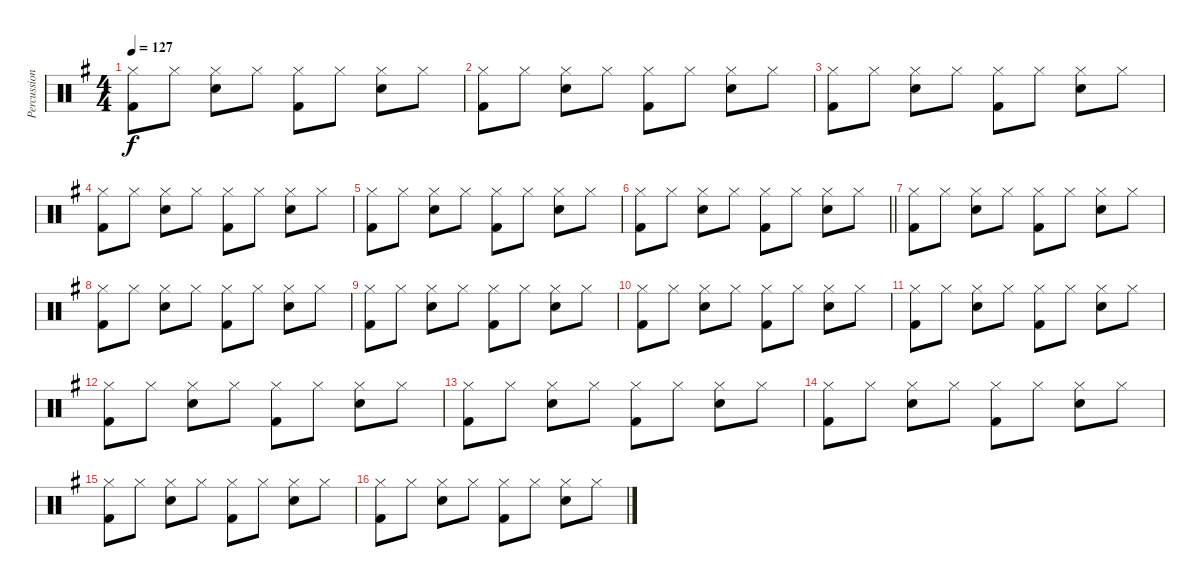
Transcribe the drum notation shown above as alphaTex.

\track ("Percussion" "Percussion") {instrument percussion}
\staff {score}
\articulation defaults
\ts (4 4)
\tempo 127
\clef neutral
\ks g
("Hi-Hat (closed)" "Kick (hit) 2").8{dy f} "Hi-Hat (closed)".8 ("Hi-Hat (closed)" "Snare (hit) 2").8 "Hi-Hat (closed)".8 ("Hi-Hat (closed)" "Kick (hit) 2").8 "Hi-Hat (closed)".8 ("Hi-Hat (closed)" "Snare (hit) 2").8 "Hi-Hat (closed)".8 |
("Hi-Hat (closed)" "Kick (hit) 2").8 "Hi-Hat (closed)".8 ("Hi-Hat (closed)" "Snare (hit) 2").8 "Hi-Hat (closed)".8 ("Hi-Hat (closed)" "Kick (hit) 2").8 "Hi-Hat (closed)".8 ("Hi-Hat (closed)" "Snare (hit) 2").8 "Hi-Hat (closed)".8 |
("Hi-Hat (closed)" "Kick (hit) 2").8 "Hi-Hat (closed)".8 ("Hi-Hat (closed)" "Snare (hit) 2").8 "Hi-Hat (closed)".8 ("Hi-Hat (closed)" "Kick (hit) 2").8 "Hi-Hat (closed)".8 ("Hi-Hat (closed)" "Snare (hit) 2").8 "Hi-Hat (closed)".8 |
("Hi-Hat (closed)" "Kick (hit) 2").8 "Hi-Hat (closed)".8 ("Hi-Hat (closed)" "Snare (hit) 2").8 "Hi-Hat (closed)".8 ("Hi-Hat (closed)" "Kick (hit) 2").8 "Hi-Hat (closed)".8 ("Hi-Hat (closed)" "Snare (hit) 2").8 "Hi-Hat (closed)".8 |
("Hi-Hat (closed)" "Kick (hit) 2").8 "Hi-Hat (closed)".8 ("Hi-Hat (closed)" "Snare (hit) 2").8 "Hi-Hat (closed)".8 ("Hi-Hat (closed)" "Kick (hit) 2").8 "Hi-Hat (closed)".8 ("Hi-Hat (closed)" "Snare (hit) 2").8 "Hi-Hat (closed)".8 |
\barLineRight lightlight
("Hi-Hat (closed)" "Kick (hit) 2").8 "Hi-Hat (closed)".8 ("Hi-Hat (closed)" "Snare (hit) 2").8 "Hi-Hat (closed)".8 ("Hi-Hat (closed)" "Kick (hit) 2").8 "Hi-Hat (closed)".8 ("Hi-Hat (closed)" "Snare (hit) 2").8 "Hi-Hat (closed)".8 |
("Hi-Hat (closed)" "Kick (hit) 2").8 "Hi-Hat (closed)".8 ("Hi-Hat (closed)" "Snare (hit) 2").8 "Hi-Hat (closed)".8 ("Hi-Hat (closed)" "Kick (hit) 2").8 "Hi-Hat (closed)".8 ("Hi-Hat (closed)" "Snare (hit) 2").8 "Hi-Hat (closed)".8 |
("Hi-Hat (closed)" "Kick (hit) 2").8 "Hi-Hat (closed)".8 ("Hi-Hat (closed)" "Snare (hit) 2").8 "Hi-Hat (closed)".8 ("Hi-Hat (closed)" "Kick (hit) 2").8 "Hi-Hat (closed)".8 ("Hi-Hat (closed)" "Snare (hit) 2").8 "Hi-Hat (closed)".8 |
("Hi-Hat (closed)" "Kick (hit) 2").8 "Hi-Hat (closed)".8 ("Hi-Hat (closed)" "Snare (hit) 2").8 "Hi-Hat (closed)".8 ("Hi-Hat (closed)" "Kick (hit) 2").8 "Hi-Hat (closed)".8 ("Hi-Hat (closed)" "Snare (hit) 2").8 "Hi-Hat (closed)".8 |
("Hi-Hat (closed)" "Kick (hit) 2").8 "Hi-Hat (closed)".8 ("Hi-Hat (closed)" "Snare (hit) 2").8 "Hi-Hat (closed)".8 ("Hi-Hat (closed)" "Kick (hit) 2").8 "Hi-Hat (closed)".8 ("Hi-Hat (closed)" "Snare (hit) 2").8 "Hi-Hat (closed)".8 |
("Hi-Hat (closed)" "Kick (hit) 2").8 "Hi-Hat (closed)".8 ("Hi-Hat (closed)" "Snare (hit) 2").8 "Hi-Hat (closed)".8 ("Hi-Hat (closed)" "Kick (hit) 2").8 "Hi-Hat (closed)".8 ("Hi-Hat (closed)" "Snare (hit) 2").8 "Hi-Hat (closed)".8 |
("Hi-Hat (closed)" "Kick (hit) 2").8 "Hi-Hat (closed)".8 ("Hi-Hat (closed)" "Snare (hit) 2").8 "Hi-Hat (closed)".8 ("Hi-Hat (closed)" "Kick (hit) 2").8 "Hi-Hat (closed)".8 ("Hi-Hat (closed)" "Snare (hit) 2").8 "Hi-Hat (closed)".8 |
("Hi-Hat (closed)" "Kick (hit) 2").8 "Hi-Hat (closed)".8 ("Hi-Hat (closed)" "Snare (hit) 2").8 "Hi-Hat (closed)".8 ("Hi-Hat (closed)" "Kick (hit) 2").8 "Hi-Hat (closed)".8 ("Hi-Hat (closed)" "Snare (hit) 2").8 "Hi-Hat (closed)".8 |
("Hi-Hat (closed)" "Kick (hit) 2").8 "Hi-Hat (closed)".8 ("Hi-Hat (closed)" "Snare (hit) 2").8 "Hi-Hat (closed)".8 ("Hi-Hat (closed)" "Kick (hit) 2").8 "Hi-Hat (closed)".8 ("Hi-Hat (closed)" "Snare (hit) 2").8 "Hi-Hat (closed)".8 |
("Hi-Hat (closed)" "Kick (hit) 2").8 "Hi-Hat (closed)".8 ("Hi-Hat (closed)" "Snare (hit) 2").8 "Hi-Hat (closed)".8 ("Hi-Hat (closed)" "Kick (hit) 2").8 "Hi-Hat (closed)".8 ("Hi-Hat (closed)" "Snare (hit) 2").8 "Hi-Hat (closed)".8 |
("Hi-Hat (closed)" "Kick (hit) 2").8 "Hi-Hat (closed)".8 ("Hi-Hat (closed)" "Snare (hit) 2").8 "Hi-Hat (closed)".8 ("Hi-Hat (closed)" "Kick (hit) 2").8 "Hi-Hat (closed)".8 ("Hi-Hat (closed)" "Snare (hit) 2").8 "Hi-Hat (closed)".8
